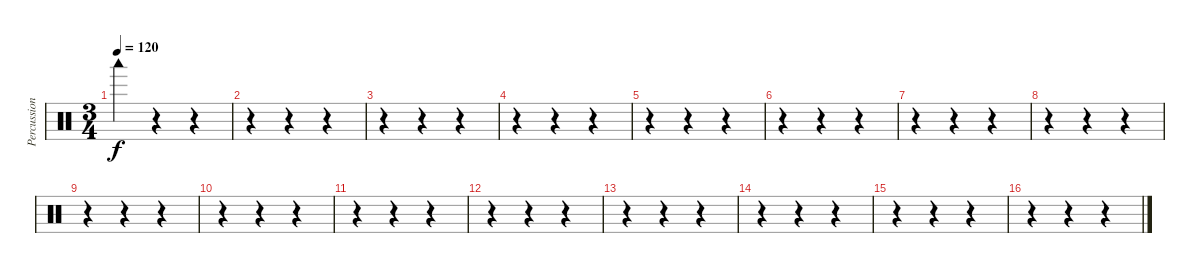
\track ("Percussions" "Percussion") {instrument percussion}
\staff {score}
\articulation defaults
\ts (3 4)
\tempo 120
\clef neutral
\ks c "Woodblock low (hit)".4{dy f}
r.4 r.4 |
r.4 r.4 r.4 |
r.4 r.4 r.4 |
r.4 r.4 r.4 |
r.4 r.4 r.4 |
r.4 r.4 r.4 |
r.4 r.4 r.4 |
r.4 r.4 r.4 |
r.4 r.4 r.4 |
r.4 r.4 r.4 |
r.4 r.4 r.4 |
r.4 r.4 r.4 |
r.4 r.4 r.4 |
r.4 r.4 r.4 |
r.4 r.4 r.4 |
r.4 r.4 r.4
